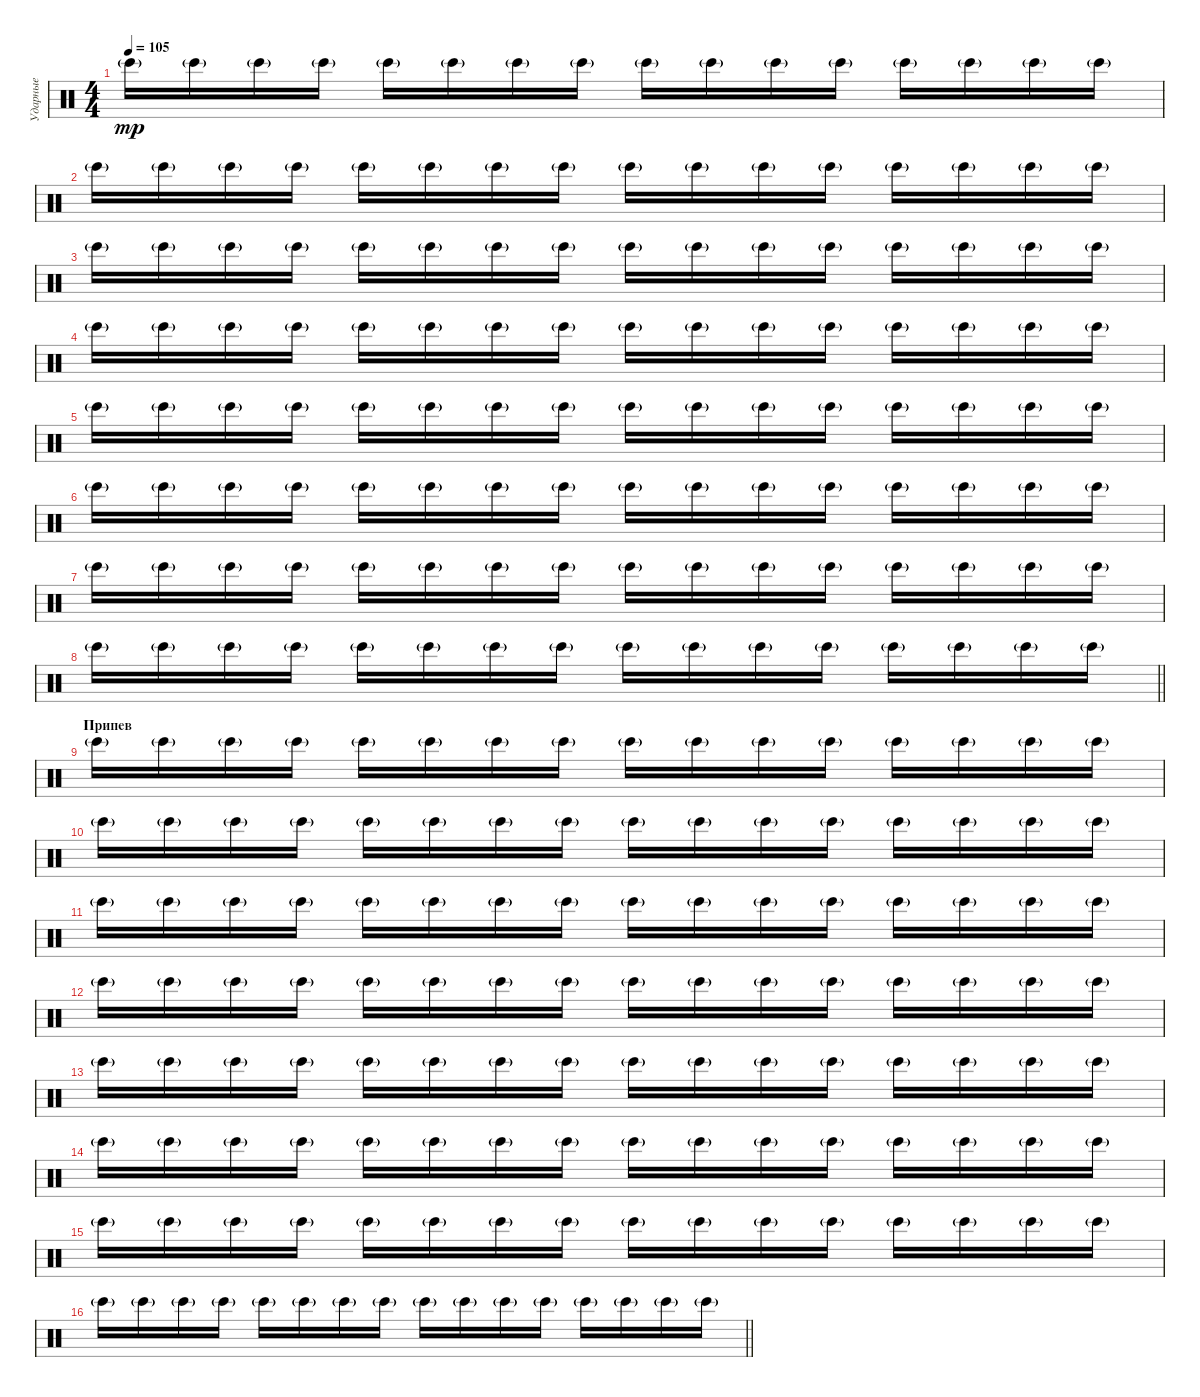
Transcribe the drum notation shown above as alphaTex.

\track ("Ударные" "Ударные") {instrument percussion}
\staff {score}
\articulation defaults
\ts (4 4)
\tempo 105
\clef neutral
\ks c "Bongo High (hit)"{g}.16{dy mp} "Bongo High (hit)"{g}.16 "Bongo High (hit)"{g}.16 "Bongo High (hit)"{g}.16 "Bongo High (hit)"{g}.16 "Bongo High (hit)"{g}.16 "Bongo High (hit)"{g}.16 "Bongo High (hit)"{g}.16 "Bongo High (hit)"{g}.16 "Bongo High (hit)"{g}.16 "Bongo High (hit)"{g}.16 "Bongo High (hit)"{g}.16 "Bongo High (hit)"{g}.16 "Bongo High (hit)"{g}.16 "Bongo High (hit)"{g}.16 "Bongo High (hit)"{g}.16
|
"Bongo High (hit)"{g}.16 "Bongo High (hit)"{g}.16 "Bongo High (hit)"{g}.16 "Bongo High (hit)"{g}.16 "Bongo High (hit)"{g}.16 "Bongo High (hit)"{g}.16 "Bongo High (hit)"{g}.16 "Bongo High (hit)"{g}.16 "Bongo High (hit)"{g}.16 "Bongo High (hit)"{g}.16 "Bongo High (hit)"{g}.16 "Bongo High (hit)"{g}.16 "Bongo High (hit)"{g}.16 "Bongo High (hit)"{g}.16 "Bongo High (hit)"{g}.16 "Bongo High (hit)"{g}.16 |
"Bongo High (hit)"{g}.16 "Bongo High (hit)"{g}.16 "Bongo High (hit)"{g}.16 "Bongo High (hit)"{g}.16 "Bongo High (hit)"{g}.16 "Bongo High (hit)"{g}.16 "Bongo High (hit)"{g}.16 "Bongo High (hit)"{g}.16 "Bongo High (hit)"{g}.16 "Bongo High (hit)"{g}.16 "Bongo High (hit)"{g}.16 "Bongo High (hit)"{g}.16 "Bongo High (hit)"{g}.16 "Bongo High (hit)"{g}.16 "Bongo High (hit)"{g}.16 "Bongo High (hit)"{g}.16 |
"Bongo High (hit)"{g}.16 "Bongo High (hit)"{g}.16 "Bongo High (hit)"{g}.16 "Bongo High (hit)"{g}.16 "Bongo High (hit)"{g}.16 "Bongo High (hit)"{g}.16 "Bongo High (hit)"{g}.16 "Bongo High (hit)"{g}.16 "Bongo High (hit)"{g}.16 "Bongo High (hit)"{g}.16 "Bongo High (hit)"{g}.16 "Bongo High (hit)"{g}.16 "Bongo High (hit)"{g}.16 "Bongo High (hit)"{g}.16 "Bongo High (hit)"{g}.16 "Bongo High (hit)"{g}.16 |
"Bongo High (hit)"{g}.16 "Bongo High (hit)"{g}.16 "Bongo High (hit)"{g}.16 "Bongo High (hit)"{g}.16 "Bongo High (hit)"{g}.16 "Bongo High (hit)"{g}.16 "Bongo High (hit)"{g}.16 "Bongo High (hit)"{g}.16 "Bongo High (hit)"{g}.16 "Bongo High (hit)"{g}.16 "Bongo High (hit)"{g}.16 "Bongo High (hit)"{g}.16 "Bongo High (hit)"{g}.16 "Bongo High (hit)"{g}.16 "Bongo High (hit)"{g}.16 "Bongo High (hit)"{g}.16 |
"Bongo High (hit)"{g}.16 "Bongo High (hit)"{g}.16 "Bongo High (hit)"{g}.16 "Bongo High (hit)"{g}.16 "Bongo High (hit)"{g}.16 "Bongo High (hit)"{g}.16 "Bongo High (hit)"{g}.16 "Bongo High (hit)"{g}.16 "Bongo High (hit)"{g}.16 "Bongo High (hit)"{g}.16 "Bongo High (hit)"{g}.16 "Bongo High (hit)"{g}.16 "Bongo High (hit)"{g}.16 "Bongo High (hit)"{g}.16 "Bongo High (hit)"{g}.16 "Bongo High (hit)"{g}.16 |
"Bongo High (hit)"{g}.16 "Bongo High (hit)"{g}.16 "Bongo High (hit)"{g}.16 "Bongo High (hit)"{g}.16 "Bongo High (hit)"{g}.16 "Bongo High (hit)"{g}.16 "Bongo High (hit)"{g}.16 "Bongo High (hit)"{g}.16 "Bongo High (hit)"{g}.16 "Bongo High (hit)"{g}.16 "Bongo High (hit)"{g}.16 "Bongo High (hit)"{g}.16 "Bongo High (hit)"{g}.16 "Bongo High (hit)"{g}.16 "Bongo High (hit)"{g}.16 "Bongo High (hit)"{g}.16 |
\barLineRight lightlight "Bongo High (hit)"{g}.16 "Bongo High (hit)"{g}.16 "Bongo High (hit)"{g}.16 "Bongo High (hit)"{g}.16 "Bongo High (hit)"{g}.16 "Bongo High (hit)"{g}.16 "Bongo High (hit)"{g}.16 "Bongo High (hit)"{g}.16 "Bongo High (hit)"{g}.16 "Bongo High (hit)"{g}.16 "Bongo High (hit)"{g}.16 "Bongo High (hit)"{g}.16 "Bongo High (hit)"{g}.16 "Bongo High (hit)"{g}.16 "Bongo High (hit)"{g}.16 "Bongo High (hit)"{g}.16
|
\section ("" "Припев")
"Bongo High (hit)"{g}.16 "Bongo High (hit)"{g}.16 "Bongo High (hit)"{g}.16 "Bongo High (hit)"{g}.16 "Bongo High (hit)"{g}.16 "Bongo High (hit)"{g}.16 "Bongo High (hit)"{g}.16 "Bongo High (hit)"{g}.16 "Bongo High (hit)"{g}.16 "Bongo High (hit)"{g}.16 "Bongo High (hit)"{g}.16 "Bongo High (hit)"{g}.16 "Bongo High (hit)"{g}.16 "Bongo High (hit)"{g}.16 "Bongo High (hit)"{g}.16 "Bongo High (hit)"{g}.16 |
"Bongo High (hit)"{g}.16 "Bongo High (hit)"{g}.16 "Bongo High (hit)"{g}.16 "Bongo High (hit)"{g}.16 "Bongo High (hit)"{g}.16 "Bongo High (hit)"{g}.16 "Bongo High (hit)"{g}.16 "Bongo High (hit)"{g}.16 "Bongo High (hit)"{g}.16 "Bongo High (hit)"{g}.16 "Bongo High (hit)"{g}.16 "Bongo High (hit)"{g}.16 "Bongo High (hit)"{g}.16 "Bongo High (hit)"{g}.16 "Bongo High (hit)"{g}.16 "Bongo High (hit)"{g}.16 |
"Bongo High (hit)"{g}.16 "Bongo High (hit)"{g}.16 "Bongo High (hit)"{g}.16 "Bongo High (hit)"{g}.16 "Bongo High (hit)"{g}.16 "Bongo High (hit)"{g}.16 "Bongo High (hit)"{g}.16 "Bongo High (hit)"{g}.16 "Bongo High (hit)"{g}.16 "Bongo High (hit)"{g}.16 "Bongo High (hit)"{g}.16 "Bongo High (hit)"{g}.16 "Bongo High (hit)"{g}.16 "Bongo High (hit)"{g}.16 "Bongo High (hit)"{g}.16 "Bongo High (hit)"{g}.16 |
"Bongo High (hit)"{g}.16 "Bongo High (hit)"{g}.16 "Bongo High (hit)"{g}.16 "Bongo High (hit)"{g}.16 "Bongo High (hit)"{g}.16 "Bongo High (hit)"{g}.16 "Bongo High (hit)"{g}.16 "Bongo High (hit)"{g}.16 "Bongo High (hit)"{g}.16 "Bongo High (hit)"{g}.16 "Bongo High (hit)"{g}.16 "Bongo High (hit)"{g}.16 "Bongo High (hit)"{g}.16 "Bongo High (hit)"{g}.16 "Bongo High (hit)"{g}.16 "Bongo High (hit)"{g}.16 |
"Bongo High (hit)"{g}.16 "Bongo High (hit)"{g}.16 "Bongo High (hit)"{g}.16 "Bongo High (hit)"{g}.16 "Bongo High (hit)"{g}.16 "Bongo High (hit)"{g}.16 "Bongo High (hit)"{g}.16 "Bongo High (hit)"{g}.16 "Bongo High (hit)"{g}.16 "Bongo High (hit)"{g}.16 "Bongo High (hit)"{g}.16 "Bongo High (hit)"{g}.16 "Bongo High (hit)"{g}.16 "Bongo High (hit)"{g}.16 "Bongo High (hit)"{g}.16 "Bongo High (hit)"{g}.16 |
"Bongo High (hit)"{g}.16 "Bongo High (hit)"{g}.16 "Bongo High (hit)"{g}.16 "Bongo High (hit)"{g}.16 "Bongo High (hit)"{g}.16 "Bongo High (hit)"{g}.16 "Bongo High (hit)"{g}.16 "Bongo High (hit)"{g}.16 "Bongo High (hit)"{g}.16 "Bongo High (hit)"{g}.16 "Bongo High (hit)"{g}.16 "Bongo High (hit)"{g}.16 "Bongo High (hit)"{g}.16 "Bongo High (hit)"{g}.16 "Bongo High (hit)"{g}.16 "Bongo High (hit)"{g}.16 |
"Bongo High (hit)"{g}.16 "Bongo High (hit)"{g}.16 "Bongo High (hit)"{g}.16 "Bongo High (hit)"{g}.16 "Bongo High (hit)"{g}.16 "Bongo High (hit)"{g}.16 "Bongo High (hit)"{g}.16 "Bongo High (hit)"{g}.16 "Bongo High (hit)"{g}.16 "Bongo High (hit)"{g}.16 "Bongo High (hit)"{g}.16 "Bongo High (hit)"{g}.16 "Bongo High (hit)"{g}.16 "Bongo High (hit)"{g}.16 "Bongo High (hit)"{g}.16 "Bongo High (hit)"{g}.16 |
\barLineRight lightlight "Bongo High (hit)"{g}.16 "Bongo High (hit)"{g}.16 "Bongo High (hit)"{g}.16 "Bongo High (hit)"{g}.16 "Bongo High (hit)"{g}.16 "Bongo High (hit)"{g}.16 "Bongo High (hit)"{g}.16 "Bongo High (hit)"{g}.16 "Bongo High (hit)"{g}.16 "Bongo High (hit)"{g}.16 "Bongo High (hit)"{g}.16 "Bongo High (hit)"{g}.16 "Bongo High (hit)"{g}.16 "Bongo High (hit)"{g}.16 "Bongo High (hit)"{g}.16 "Bongo High (hit)"{g}.16
